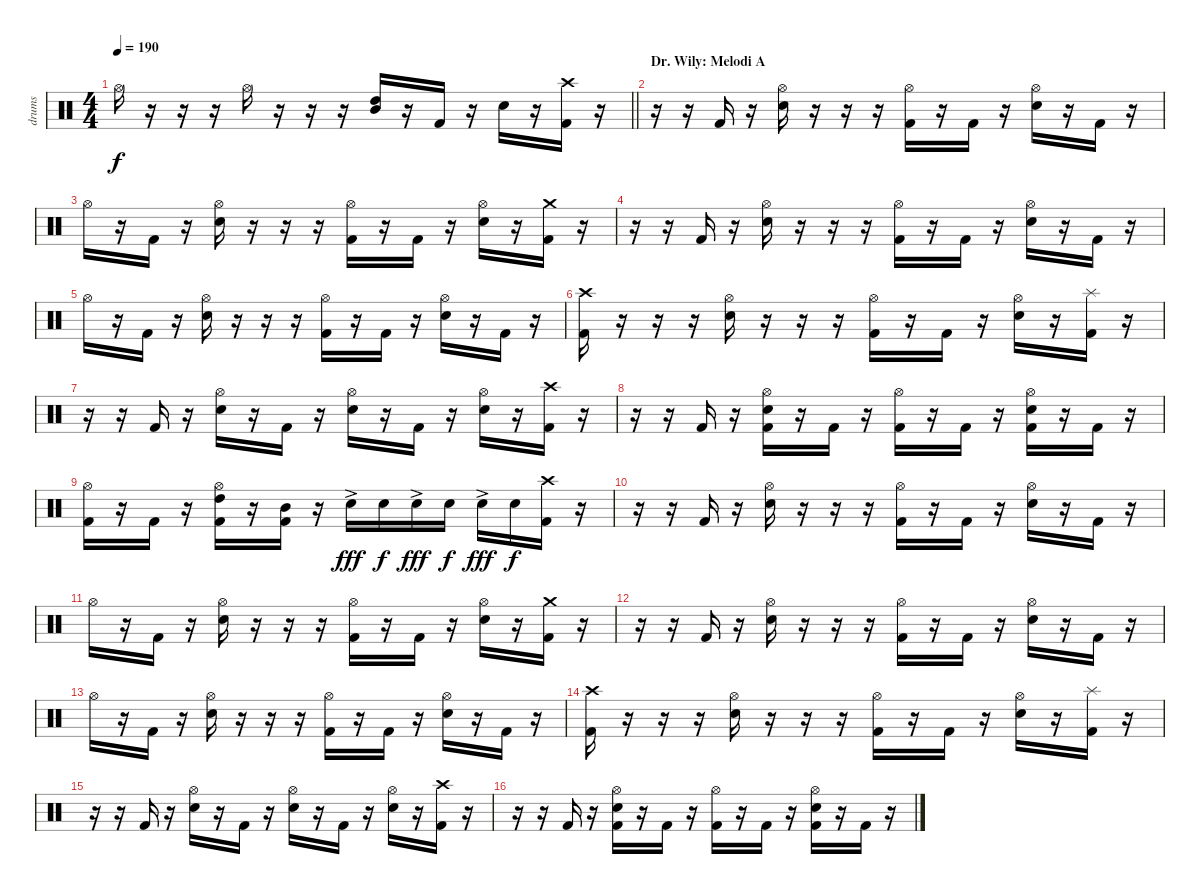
\track ("drums" "drums") {instrument percussion}
\staff {score}
\articulation defaults
\ts (4 4)
\tempo 190
\clef neutral
\barLineRight lightlight
\ks c "Hi-Hat (open)".16{dy f}
r.16 r.16 r.16 "Hi-Hat (open)".16 r.16 r.16 r.16 ("High Tom (hit)" "Mid Tom (hit)").16 r.16 "Kick (hit) 2".16 r.16 "Electric Snare (hit)".16 r.16 ("Crash high (hit)" "Kick (hit) 2").16 r.16 |
\section ("" "Dr. Wily: Melodi A")
r.16 r.16 "Kick (hit) 2".16 r.16 ("Hi-Hat (open)" "Electric Snare (hit)").16 r.16 r.16 r.16 ("Hi-Hat (open)" "Kick (hit) 2").16 r.16 "Kick (hit) 2".16 r.16 ("Hi-Hat (open)" "Electric Snare (hit)").16 r.16 "Kick (hit) 2".16 r.16 |
"Hi-Hat (open)".16 r.16 "Kick (hit) 2".16 r.16 ("Hi-Hat (open)" "Electric Snare (hit)").16 r.16 r.16 r.16 ("Hi-Hat (open)" "Kick (hit) 2").16 r.16 "Kick (hit) 2".16 r.16 ("Hi-Hat (open)" "Electric Snare (hit)").16 r.16 ("Crash medium (hit)" "Kick (hit) 2").16 r.16 |
r.16 r.16 "Kick (hit) 2".16 r.16 ("Hi-Hat (open)" "Electric Snare (hit)").16 r.16 r.16 r.16 ("Hi-Hat (open)" "Kick (hit) 2").16 r.16 "Kick (hit) 2".16 r.16 ("Hi-Hat (open)" "Electric Snare (hit)").16 r.16 "Kick (hit) 2".16 r.16 |
"Hi-Hat (open)".16 r.16 "Kick (hit) 2".16 r.16 ("Hi-Hat (open)" "Electric Snare (hit)").16 r.16 r.16 r.16 ("Hi-Hat (open)" "Kick (hit) 2").16 r.16 "Kick (hit) 2".16 r.16 ("Hi-Hat (open)" "Electric Snare (hit)").16 r.16 "Kick (hit) 2".16 r.16 |
("Crash high (hit)" "Kick (hit) 2").16 r.16 r.16 r.16 ("Hi-Hat (open)" "Electric Snare (hit)").16 r.16 r.16 r.16 ("Hi-Hat (open)" "Kick (hit) 2").16 r.16 "Kick (hit) 2".16 r.16 ("Hi-Hat (open)" "Electric Snare (hit)").16 r.16 ("Splash (hit)" "Kick (hit) 2").16 r.16 |
r.16 r.16 "Kick (hit) 2".16 r.16 ("Hi-Hat (open)" "Electric Snare (hit)").16 r.16 "Kick (hit) 2".16 r.16 ("Hi-Hat (open)" "Electric Snare (hit)").16 r.16 "Kick (hit) 2".16 r.16 ("Hi-Hat (open)" "Electric Snare (hit)").16 r.16 ("Crash high (hit)" "Kick (hit) 2").16 r.16 |
r.16 r.16 "Kick (hit) 2".16 r.16 ("Hi-Hat (open)" "Electric Snare (hit)" "Kick (hit) 2").16 r.16 "Kick (hit) 2".16 r.16 ("Hi-Hat (open)" "Kick (hit) 2").16 r.16 "Kick (hit) 2".16 r.16 ("Hi-Hat (open)" "Electric Snare (hit)" "Kick (hit) 2").16 r.16 "Kick (hit) 2".16 r.16 |
("Hi-Hat (open)" "Kick (hit) 2").16 r.16 "Kick (hit) 2".16 r.16 ("Hi-Hat (open)" "High Tom (hit)" "Kick (hit) 2").16 r.16 ("Mid Tom (hit)" "Kick (hit) 2").16 r.16 "Electric Snare (hit)"{ac}.16{dy fff} "Electric Snare (hit)".16{dy f} "Electric Snare (hit)"{ac}.16{dy fff} "Electric Snare (hit)".16{dy f} "Electric Snare (hit)"{ac}.16{dy fff} "Electric Snare (hit)".16{dy f} ("Crash high (hit)" "Kick (hit) 2").16 r.16 |
r.16 r.16 "Kick (hit) 2".16 r.16 ("Hi-Hat (open)" "Electric Snare (hit)").16 r.16 r.16 r.16 ("Hi-Hat (open)" "Kick (hit) 2").16 r.16 "Kick (hit) 2".16 r.16 ("Hi-Hat (open)" "Electric Snare (hit)").16 r.16 "Kick (hit) 2".16 r.16 |
"Hi-Hat (open)".16 r.16 "Kick (hit) 2".16 r.16 ("Hi-Hat (open)" "Electric Snare (hit)").16 r.16 r.16 r.16 ("Hi-Hat (open)" "Kick (hit) 2").16 r.16 "Kick (hit) 2".16 r.16 ("Hi-Hat (open)" "Electric Snare (hit)").16 r.16 ("Crash medium (hit)" "Kick (hit) 2").16 r.16 |
r.16 r.16 "Kick (hit) 2".16 r.16 ("Hi-Hat (open)" "Electric Snare (hit)").16 r.16 r.16 r.16 ("Hi-Hat (open)" "Kick (hit) 2").16 r.16 "Kick (hit) 2".16 r.16 ("Hi-Hat (open)" "Electric Snare (hit)").16 r.16 "Kick (hit) 2".16 r.16 |
"Hi-Hat (open)".16 r.16 "Kick (hit) 2".16 r.16 ("Hi-Hat (open)" "Electric Snare (hit)").16 r.16 r.16 r.16 ("Hi-Hat (open)" "Kick (hit) 2").16 r.16 "Kick (hit) 2".16 r.16 ("Hi-Hat (open)" "Electric Snare (hit)").16 r.16 "Kick (hit) 2".16 r.16 |
("Crash high (hit)" "Kick (hit) 2").16 r.16 r.16 r.16 ("Hi-Hat (open)" "Electric Snare (hit)").16 r.16 r.16 r.16 ("Hi-Hat (open)" "Kick (hit) 2").16 r.16 "Kick (hit) 2".16 r.16 ("Hi-Hat (open)" "Electric Snare (hit)").16 r.16 ("Splash (hit)" "Kick (hit) 2").16 r.16 |
r.16 r.16 "Kick (hit) 2".16 r.16 ("Hi-Hat (open)" "Electric Snare (hit)").16 r.16 "Kick (hit) 2".16 r.16 ("Hi-Hat (open)" "Electric Snare (hit)").16 r.16 "Kick (hit) 2".16 r.16 ("Hi-Hat (open)" "Electric Snare (hit)").16 r.16 ("Crash high (hit)" "Kick (hit) 2").16 r.16 |
r.16 r.16 "Kick (hit) 2".16 r.16 ("Hi-Hat (open)" "Electric Snare (hit)" "Kick (hit) 2").16 r.16 "Kick (hit) 2".16 r.16 ("Hi-Hat (open)" "Kick (hit) 2").16 r.16 "Kick (hit) 2".16 r.16 ("Hi-Hat (open)" "Electric Snare (hit)" "Kick (hit) 2").16 r.16 "Kick (hit) 2".16 r.16
